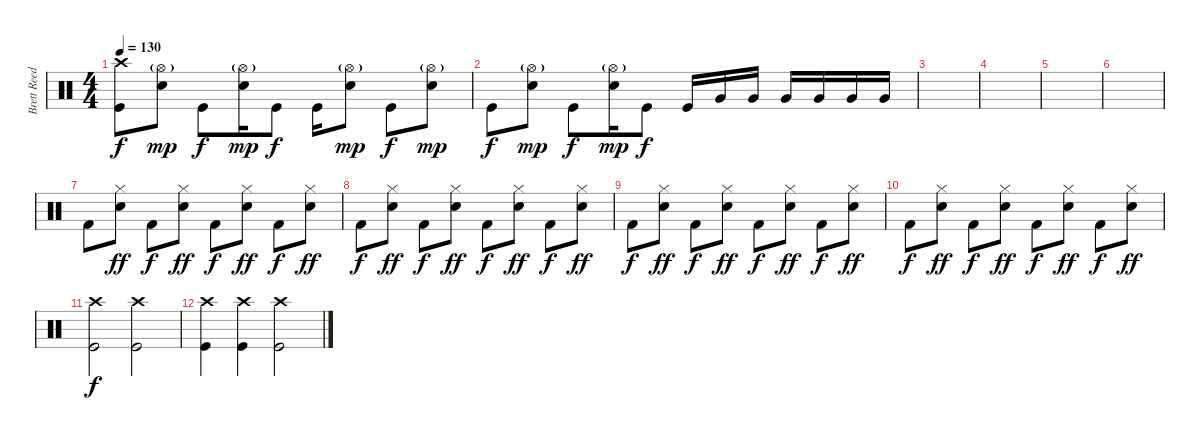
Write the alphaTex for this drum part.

\track ("Brett Reed" "Brett Reed") {instrument percussion}
\staff {score}
\articulation defaults
\ts (4 4)
\tempo 130
\clef neutral
\ks c
("Crash high (hit)" "Kick (hit)").8{dy f} ("Hi-Hat (open)"{g} "Electric Snare (hit)").8{dy mp} "Kick (hit)".8{dy f} ("Hi-Hat (open)"{g} "Electric Snare (hit)").16{dy mp} "Kick (hit)".8{dy f} "Kick (hit)".16 ("Hi-Hat (open)"{g} "Electric Snare (hit)").8{dy mp} "Kick (hit)".8{dy f} ("Hi-Hat (open)"{g} "Electric Snare (hit)").8{dy mp} |
"Kick (hit)".8{dy f} ("Hi-Hat (open)"{g} "Electric Snare (hit)").8{dy mp} "Kick (hit)".8{dy f} ("Hi-Hat (open)"{g} "Electric Snare (hit)").16{dy mp} "Kick (hit)".8{dy f} "Kick (hit)".16 "Very Low Tom (hit)".16 "Very Low Tom (hit)".16 "Very Low Tom (hit)".16 "Very Low Tom (hit)".16 "Very Low Tom (hit)".16 "Very Low Tom (hit)".16 |
|
|
|
|
"Kick (hit) 2".8 ("Hi-Hat (closed)" "Electric Snare (hit)").8{dy ff} "Kick (hit) 2".8{dy f} ("Hi-Hat (closed)" "Electric Snare (hit)").8{dy ff} "Kick (hit) 2".8{dy f} ("Hi-Hat (closed)" "Electric Snare (hit)").8{dy ff} "Kick (hit) 2".8{dy f} ("Hi-Hat (closed)" "Electric Snare (hit)").8{dy ff} |
"Kick (hit) 2".8{dy f} ("Hi-Hat (closed)" "Electric Snare (hit)").8{dy ff} "Kick (hit) 2".8{dy f} ("Hi-Hat (closed)" "Electric Snare (hit)").8{dy ff} "Kick (hit) 2".8{dy f} ("Hi-Hat (closed)" "Electric Snare (hit)").8{dy ff} "Kick (hit) 2".8{dy f} ("Hi-Hat (closed)" "Electric Snare (hit)").8{dy ff} |
"Kick (hit) 2".8{dy f} ("Hi-Hat (closed)" "Electric Snare (hit)").8{dy ff} "Kick (hit) 2".8{dy f} ("Hi-Hat (closed)" "Electric Snare (hit)").8{dy ff} "Kick (hit) 2".8{dy f} ("Hi-Hat (closed)" "Electric Snare (hit)").8{dy ff} "Kick (hit) 2".8{dy f} ("Hi-Hat (closed)" "Electric Snare (hit)").8{dy ff} |
"Kick (hit) 2".8{dy f} ("Hi-Hat (closed)" "Electric Snare (hit)").8{dy ff} "Kick (hit) 2".8{dy f} ("Hi-Hat (closed)" "Electric Snare (hit)").8{dy ff} "Kick (hit) 2".8{dy f} ("Hi-Hat (closed)" "Electric Snare (hit)").8{dy ff} "Kick (hit) 2".8{dy f} ("Hi-Hat (closed)" "Electric Snare (hit)").8{dy ff} |
("Crash high (hit)" "Kick (hit)").2{dy f} ("Crash high (hit)" "Kick (hit)").2 |
("Crash high (hit)" "Kick (hit)").4 ("Crash high (hit)" "Kick (hit)").4 ("Crash high (hit)" "Kick (hit)").2
